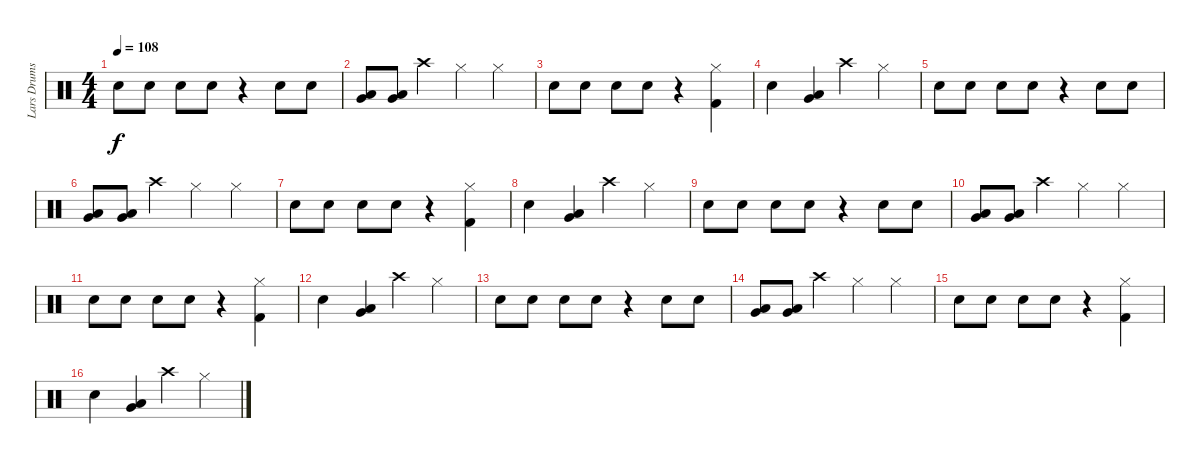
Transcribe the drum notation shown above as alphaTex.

\track ("Lars Drums" "Lars Drums") {instrument percussion}
\staff {score}
\articulation defaults
\ts (4 4)
\tempo 108
\clef neutral
\ks c "Electric Snare (hit)".8{dy f} "Electric Snare (hit)".8 "Electric Snare (hit)".8 "Electric Snare (hit)".8
r.4 "Electric Snare (hit)".8 "Electric Snare (hit)".8 |
("Very Low Tom (hit)" "Low Floor Tom (hit)").8 ("Very Low Tom (hit)" "Low Floor Tom (hit)").8 "Crash high (hit)".4 "Hi-Hat (closed)".4 "Hi-Hat (closed)".4 |
"Electric Snare (hit)".8 "Electric Snare (hit)".8 "Electric Snare (hit)".8 "Electric Snare (hit)".8 r.4 ("Hi-Hat (closed)" "Kick (hit) 2").4 |
"Electric Snare (hit)".4 ("Low Floor Tom (hit)" "Very Low Tom (hit)").4 "Crash high (hit)".4 "Hi-Hat (closed)".4 |
"Electric Snare (hit)".8 "Electric Snare (hit)".8 "Electric Snare (hit)".8 "Electric Snare (hit)".8 r.4 "Electric Snare (hit)".8 "Electric Snare (hit)".8 |
("Very Low Tom (hit)" "Low Floor Tom (hit)").8 ("Very Low Tom (hit)" "Low Floor Tom (hit)").8 "Crash high (hit)".4 "Hi-Hat (closed)".4 "Hi-Hat (closed)".4 |
"Electric Snare (hit)".8 "Electric Snare (hit)".8 "Electric Snare (hit)".8 "Electric Snare (hit)".8 r.4 ("Hi-Hat (closed)" "Kick (hit) 2").4 |
"Electric Snare (hit)".4 ("Low Floor Tom (hit)" "Very Low Tom (hit)").4 "Crash high (hit)".4 "Hi-Hat (closed)".4 |
"Electric Snare (hit)".8 "Electric Snare (hit)".8 "Electric Snare (hit)".8 "Electric Snare (hit)".8 r.4 "Electric Snare (hit)".8 "Electric Snare (hit)".8 |
("Very Low Tom (hit)" "Low Floor Tom (hit)").8 ("Very Low Tom (hit)" "Low Floor Tom (hit)").8 "Crash high (hit)".4 "Hi-Hat (closed)".4 "Hi-Hat (closed)".4 |
"Electric Snare (hit)".8 "Electric Snare (hit)".8 "Electric Snare (hit)".8 "Electric Snare (hit)".8 r.4 ("Hi-Hat (closed)" "Kick (hit) 2").4 |
"Electric Snare (hit)".4 ("Low Floor Tom (hit)" "Very Low Tom (hit)").4 "Crash high (hit)".4 "Hi-Hat (closed)".4 |
"Electric Snare (hit)".8 "Electric Snare (hit)".8 "Electric Snare (hit)".8 "Electric Snare (hit)".8 r.4 "Electric Snare (hit)".8 "Electric Snare (hit)".8 |
("Very Low Tom (hit)" "Low Floor Tom (hit)").8 ("Very Low Tom (hit)" "Low Floor Tom (hit)").8 "Crash high (hit)".4 "Hi-Hat (closed)".4 "Hi-Hat (closed)".4 |
"Electric Snare (hit)".8 "Electric Snare (hit)".8 "Electric Snare (hit)".8 "Electric Snare (hit)".8 r.4 ("Hi-Hat (closed)" "Kick (hit) 2").4 |
"Electric Snare (hit)".4 ("Low Floor Tom (hit)" "Very Low Tom (hit)").4 "Crash high (hit)".4 "Hi-Hat (closed)".4
